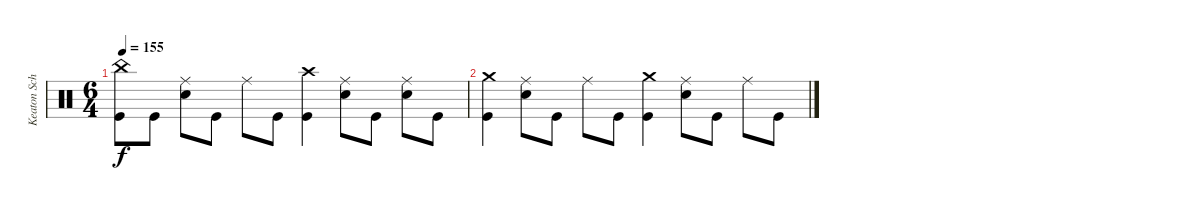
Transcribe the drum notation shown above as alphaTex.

\track ("Keaton Schluchter Drums" "Keaton Sch") {instrument percussion bank 20}
\staff {score}
\articulation defaults
\ts (6 4)
\tempo 155
\clef neutral
\ks c
("China (hit)" "Kick (hit)").8{dy f} "Kick (hit)".8 ("Ride (middle)" "Electric Snare (hit)").8 "Kick (hit)".8 "Ride (middle)".8 "Kick (hit)".8 ("Crash high (hit)" "Kick (hit)").4 ("Ride (middle)" "Electric Snare (hit)").8 "Kick (hit)".8 ("Ride (middle)" "Electric Snare (hit)").8 "Kick (hit)".8 |
("Crash medium (hit)" "Kick (hit)").4 ("Ride (middle)" "Electric Snare (hit)").8 "Kick (hit)".8 "Ride (middle)".8 "Kick (hit)".8 ("Crash medium (hit)" "Kick (hit)").4 ("Ride (middle)" "Electric Snare (hit)").8 "Kick (hit)".8 "Ride (middle)".8 "Kick (hit)".8
